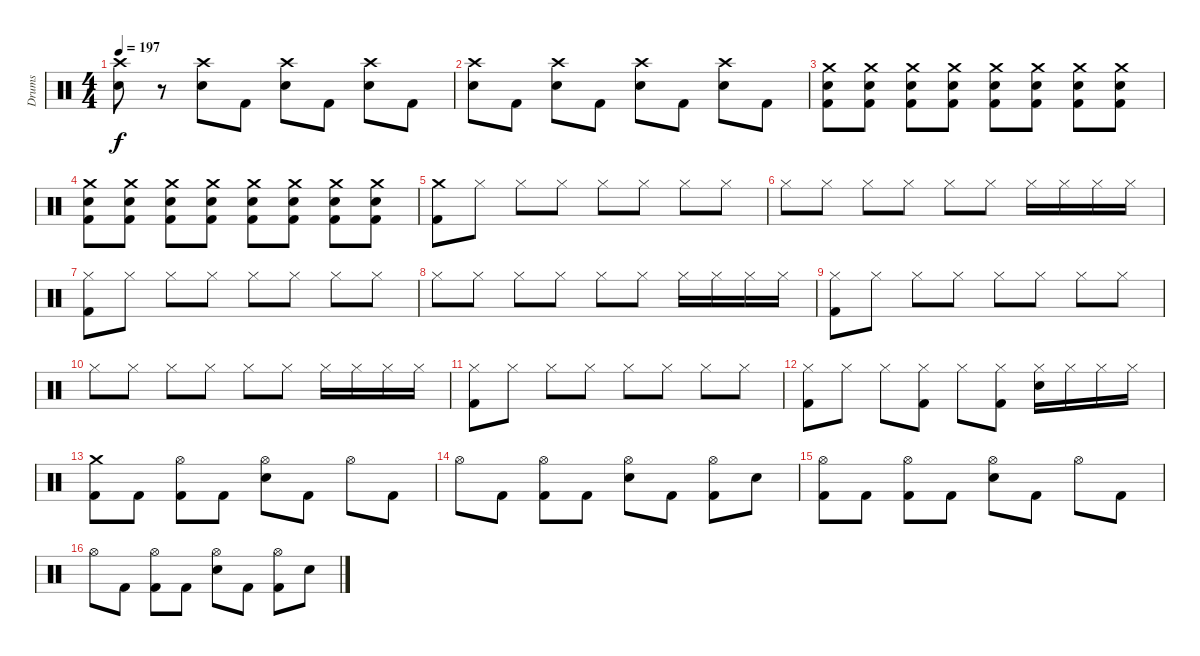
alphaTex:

\track ("Drums" "Drums") {instrument percussion}
\staff {score}
\articulation defaults
\ts (4 4)
\tempo 197
\clef neutral
\ks c
("Crash high (hit)" "Electric Snare (hit)").8{dy f} r.8 ("Crash high (hit)" "Electric Snare (hit)").8 "Kick (hit) 2".8 ("Crash high (hit)" "Electric Snare (hit)").8 "Kick (hit) 2".8 ("Crash high (hit)" "Electric Snare (hit)").8 "Kick (hit) 2".8 |
("Crash high (hit)" "Electric Snare (hit)").8 "Kick (hit) 2".8 ("Crash high (hit)" "Electric Snare (hit)").8 "Kick (hit) 2".8 ("Crash high (hit)" "Electric Snare (hit)").8 "Kick (hit) 2".8 ("Crash high (hit)" "Electric Snare (hit)").8 "Kick (hit) 2".8 |
("Crash medium (hit)" "Electric Snare (hit)" "Kick (hit) 2").8 ("Crash medium (hit)" "Electric Snare (hit)" "Kick (hit) 2").8 ("Crash medium (hit)" "Electric Snare (hit)" "Kick (hit) 2").8 ("Crash medium (hit)" "Electric Snare (hit)" "Kick (hit) 2").8 ("Crash medium (hit)" "Electric Snare (hit)" "Kick (hit) 2").8 ("Crash medium (hit)" "Electric Snare (hit)" "Kick (hit) 2").8 ("Crash medium (hit)" "Electric Snare (hit)" "Kick (hit) 2").8 ("Crash medium (hit)" "Electric Snare (hit)" "Kick (hit) 2").8 |
("Crash medium (hit)" "Electric Snare (hit)" "Kick (hit) 2").8 ("Crash medium (hit)" "Electric Snare (hit)" "Kick (hit) 2").8 ("Crash medium (hit)" "Electric Snare (hit)" "Kick (hit) 2").8 ("Crash medium (hit)" "Electric Snare (hit)" "Kick (hit) 2").8 ("Crash medium (hit)" "Electric Snare (hit)" "Kick (hit) 2").8 ("Crash medium (hit)" "Electric Snare (hit)" "Kick (hit) 2").8 ("Crash medium (hit)" "Electric Snare (hit)" "Kick (hit) 2").8 ("Crash medium (hit)" "Electric Snare (hit)" "Kick (hit) 2").8 |
("Crash medium (hit)" "Kick (hit) 2").8 "Hi-Hat (closed)".8 "Hi-Hat (closed)".8 "Hi-Hat (closed)".8 "Hi-Hat (closed)".8 "Hi-Hat (closed)".8 "Hi-Hat (closed)".8 "Hi-Hat (closed)".8 |
"Hi-Hat (closed)".8 "Hi-Hat (closed)".8 "Hi-Hat (closed)".8 "Hi-Hat (closed)".8 "Hi-Hat (closed)".8 "Hi-Hat (closed)".8 "Hi-Hat (closed)".16 "Hi-Hat (closed)".16 "Hi-Hat (closed)".16 "Hi-Hat (closed)".16 |
("Hi-Hat (closed)" "Kick (hit) 2").8 "Hi-Hat (closed)".8 "Hi-Hat (closed)".8 "Hi-Hat (closed)".8 "Hi-Hat (closed)".8 "Hi-Hat (closed)".8 "Hi-Hat (closed)".8 "Hi-Hat (closed)".8 |
"Hi-Hat (closed)".8 "Hi-Hat (closed)".8 "Hi-Hat (closed)".8 "Hi-Hat (closed)".8 "Hi-Hat (closed)".8 "Hi-Hat (closed)".8 "Hi-Hat (closed)".16 "Hi-Hat (closed)".16 "Hi-Hat (closed)".16 "Hi-Hat (closed)".16 |
("Hi-Hat (closed)" "Kick (hit) 2").8 "Hi-Hat (closed)".8 "Hi-Hat (closed)".8 "Hi-Hat (closed)".8 "Hi-Hat (closed)".8 "Hi-Hat (closed)".8 "Hi-Hat (closed)".8 "Hi-Hat (closed)".8 |
"Hi-Hat (closed)".8 "Hi-Hat (closed)".8 "Hi-Hat (closed)".8 "Hi-Hat (closed)".8 "Hi-Hat (closed)".8 "Hi-Hat (closed)".8 "Hi-Hat (closed)".16 "Hi-Hat (closed)".16 "Hi-Hat (closed)".16 "Hi-Hat (closed)".16 |
("Hi-Hat (closed)" "Kick (hit) 2").8 "Hi-Hat (closed)".8 "Hi-Hat (closed)".8 "Hi-Hat (closed)".8 "Hi-Hat (closed)".8 "Hi-Hat (closed)".8 "Hi-Hat (closed)".8 "Hi-Hat (closed)".8 |
("Hi-Hat (closed)" "Kick (hit) 2").8 "Hi-Hat (closed)".8 "Hi-Hat (closed)".8 ("Hi-Hat (closed)" "Kick (hit) 2").8 "Hi-Hat (closed)".8 ("Hi-Hat (closed)" "Kick (hit) 2").8 ("Hi-Hat (closed)" "Electric Snare (hit)").16 "Hi-Hat (closed)".16 "Hi-Hat (closed)".16 "Hi-Hat (closed)".16 |
("Crash medium (hit)" "Kick (hit) 2").8 "Kick (hit) 2".8 ("Hi-Hat (open)" "Kick (hit) 2").8 "Kick (hit) 2".8 ("Hi-Hat (open)" "Electric Snare (hit)").8 "Kick (hit) 2".8 "Hi-Hat (open)".8 "Kick (hit) 2".8 |
"Hi-Hat (open)".8 "Kick (hit) 2".8 ("Hi-Hat (open)" "Kick (hit) 2").8 "Kick (hit) 2".8 ("Hi-Hat (open)" "Electric Snare (hit)").8 "Kick (hit) 2".8 ("Hi-Hat (open)" "Kick (hit) 2").8 "Electric Snare (hit)".8 |
("Hi-Hat (open)" "Kick (hit) 2").8 "Kick (hit) 2".8 ("Hi-Hat (open)" "Kick (hit) 2").8 "Kick (hit) 2".8 ("Hi-Hat (open)" "Electric Snare (hit)").8 "Kick (hit) 2".8 "Hi-Hat (open)".8 "Kick (hit) 2".8 |
"Hi-Hat (open)".8 "Kick (hit) 2".8 ("Hi-Hat (open)" "Kick (hit) 2").8 "Kick (hit) 2".8 ("Hi-Hat (open)" "Electric Snare (hit)").8 "Kick (hit) 2".8 ("Hi-Hat (open)" "Kick (hit) 2").8 "Electric Snare (hit)".8
